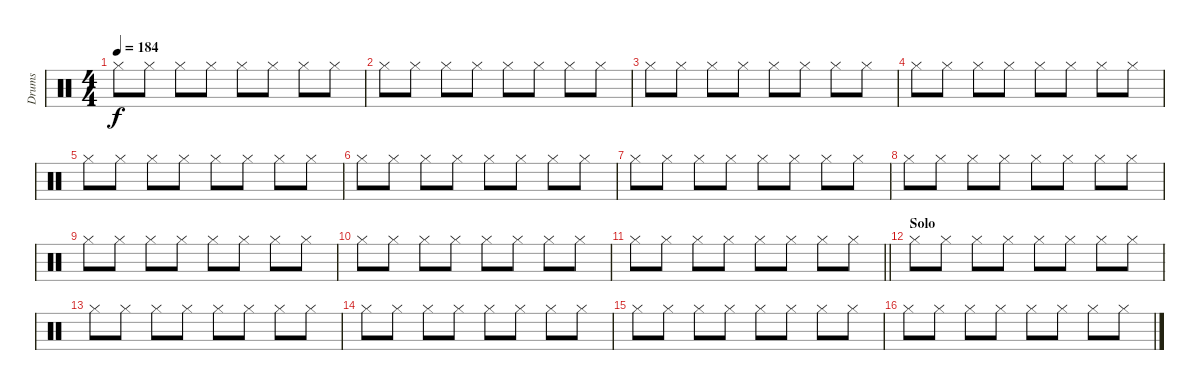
\track ("Drums" "Drums") {instrument percussion}
\staff {score}
\articulation defaults
\ts (4 4)
\tempo 184
\clef neutral
\ks c "Hi-Hat (closed)".8{dy f} "Hi-Hat (closed)".8 "Hi-Hat (closed)".8 "Hi-Hat (closed)".8 "Hi-Hat (closed)".8 "Hi-Hat (closed)".8 "Hi-Hat (closed)".8 "Hi-Hat (closed)".8
|
"Hi-Hat (closed)".8 "Hi-Hat (closed)".8 "Hi-Hat (closed)".8 "Hi-Hat (closed)".8 "Hi-Hat (closed)".8 "Hi-Hat (closed)".8 "Hi-Hat (closed)".8 "Hi-Hat (closed)".8 |
"Hi-Hat (closed)".8 "Hi-Hat (closed)".8 "Hi-Hat (closed)".8 "Hi-Hat (closed)".8 "Hi-Hat (closed)".8 "Hi-Hat (closed)".8 "Hi-Hat (closed)".8 "Hi-Hat (closed)".8 |
"Hi-Hat (closed)".8 "Hi-Hat (closed)".8 "Hi-Hat (closed)".8 "Hi-Hat (closed)".8 "Hi-Hat (closed)".8 "Hi-Hat (closed)".8 "Hi-Hat (closed)".8 "Hi-Hat (closed)".8 |
"Hi-Hat (closed)".8 "Hi-Hat (closed)".8 "Hi-Hat (closed)".8 "Hi-Hat (closed)".8 "Hi-Hat (closed)".8 "Hi-Hat (closed)".8 "Hi-Hat (closed)".8 "Hi-Hat (closed)".8 |
"Hi-Hat (closed)".8 "Hi-Hat (closed)".8 "Hi-Hat (closed)".8 "Hi-Hat (closed)".8 "Hi-Hat (closed)".8 "Hi-Hat (closed)".8 "Hi-Hat (closed)".8 "Hi-Hat (closed)".8 |
"Hi-Hat (closed)".8 "Hi-Hat (closed)".8 "Hi-Hat (closed)".8 "Hi-Hat (closed)".8 "Hi-Hat (closed)".8 "Hi-Hat (closed)".8 "Hi-Hat (closed)".8 "Hi-Hat (closed)".8 |
"Hi-Hat (closed)".8 "Hi-Hat (closed)".8 "Hi-Hat (closed)".8 "Hi-Hat (closed)".8 "Hi-Hat (closed)".8 "Hi-Hat (closed)".8 "Hi-Hat (closed)".8 "Hi-Hat (closed)".8 |
"Hi-Hat (closed)".8 "Hi-Hat (closed)".8 "Hi-Hat (closed)".8 "Hi-Hat (closed)".8 "Hi-Hat (closed)".8 "Hi-Hat (closed)".8 "Hi-Hat (closed)".8 "Hi-Hat (closed)".8 |
"Hi-Hat (closed)".8 "Hi-Hat (closed)".8 "Hi-Hat (closed)".8 "Hi-Hat (closed)".8 "Hi-Hat (closed)".8 "Hi-Hat (closed)".8 "Hi-Hat (closed)".8 "Hi-Hat (closed)".8 |
\barLineRight lightlight "Hi-Hat (closed)".8 "Hi-Hat (closed)".8 "Hi-Hat (closed)".8 "Hi-Hat (closed)".8 "Hi-Hat (closed)".8 "Hi-Hat (closed)".8 "Hi-Hat (closed)".8 "Hi-Hat (closed)".8
|
\section ("" "Solo")
"Hi-Hat (closed)".8 "Hi-Hat (closed)".8 "Hi-Hat (closed)".8 "Hi-Hat (closed)".8 "Hi-Hat (closed)".8 "Hi-Hat (closed)".8 "Hi-Hat (closed)".8 "Hi-Hat (closed)".8 |
"Hi-Hat (closed)".8 "Hi-Hat (closed)".8 "Hi-Hat (closed)".8 "Hi-Hat (closed)".8 "Hi-Hat (closed)".8 "Hi-Hat (closed)".8 "Hi-Hat (closed)".8 "Hi-Hat (closed)".8 |
"Hi-Hat (closed)".8 "Hi-Hat (closed)".8 "Hi-Hat (closed)".8 "Hi-Hat (closed)".8 "Hi-Hat (closed)".8 "Hi-Hat (closed)".8 "Hi-Hat (closed)".8 "Hi-Hat (closed)".8 |
"Hi-Hat (closed)".8 "Hi-Hat (closed)".8 "Hi-Hat (closed)".8 "Hi-Hat (closed)".8 "Hi-Hat (closed)".8 "Hi-Hat (closed)".8 "Hi-Hat (closed)".8 "Hi-Hat (closed)".8 |
"Hi-Hat (closed)".8 "Hi-Hat (closed)".8 "Hi-Hat (closed)".8 "Hi-Hat (closed)".8 "Hi-Hat (closed)".8 "Hi-Hat (closed)".8 "Hi-Hat (closed)".8 "Hi-Hat (closed)".8
